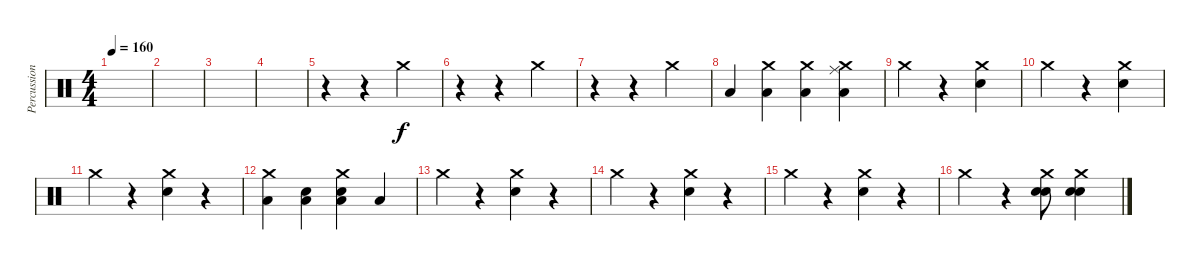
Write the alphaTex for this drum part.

\track ("Percussion" "Percussion") {instrument percussion}
\staff {score}
\articulation defaults
\ts (4 4)
\tempo 160
\clef neutral
\ks c
|
|
|
|
r.4 r.4 "Crash medium (hit)".4 |
r.4 r.4 "Crash medium (hit)".4 |
r.4 r.4 "Crash medium (hit)".4 |
"Low Floor Tom (hit)".4 ("Crash medium (hit)" "Low Floor Tom (hit)").4 ("Crash medium (hit)" "Low Floor Tom (hit)").4 ("Crash medium (hit)" "Low Floor Tom (hit)" "Ride (middle)").4 |
"Crash medium (hit)".4 r.4 ("Crash medium (hit)" "Electric Snare (hit)").4 |
"Crash medium (hit)".4 r.4 ("Crash medium (hit)" "Electric Snare (hit)").4 |
"Crash medium (hit)".4 r.4 ("Crash medium (hit)" "Electric Snare (hit)").4 r.4 |
("Crash medium (hit)" "Low Floor Tom (hit)").4 ("Low Floor Tom (hit)" "Electric Snare (hit)").4 ("Crash medium (hit)" "Low Floor Tom (hit)" "Electric Snare (hit)").4 "Low Floor Tom (hit)".4 |
"Crash medium (hit)".4 r.4 ("Crash medium (hit)" "Electric Snare (hit)").4 r.4 |
"Crash medium (hit)".4 r.4 ("Crash medium (hit)" "Electric Snare (hit)").4 r.4 |
"Crash medium (hit)".4 r.4 ("Crash medium (hit)" "Electric Snare (hit)").4 r.4 |
"Crash medium (hit)".4 r.4 ("Crash medium (hit)" "Snare (hit) 2" "Electric Snare (hit)").8 ("Crash medium (hit)" "Snare (hit) 2" "Electric Snare (hit)").4
